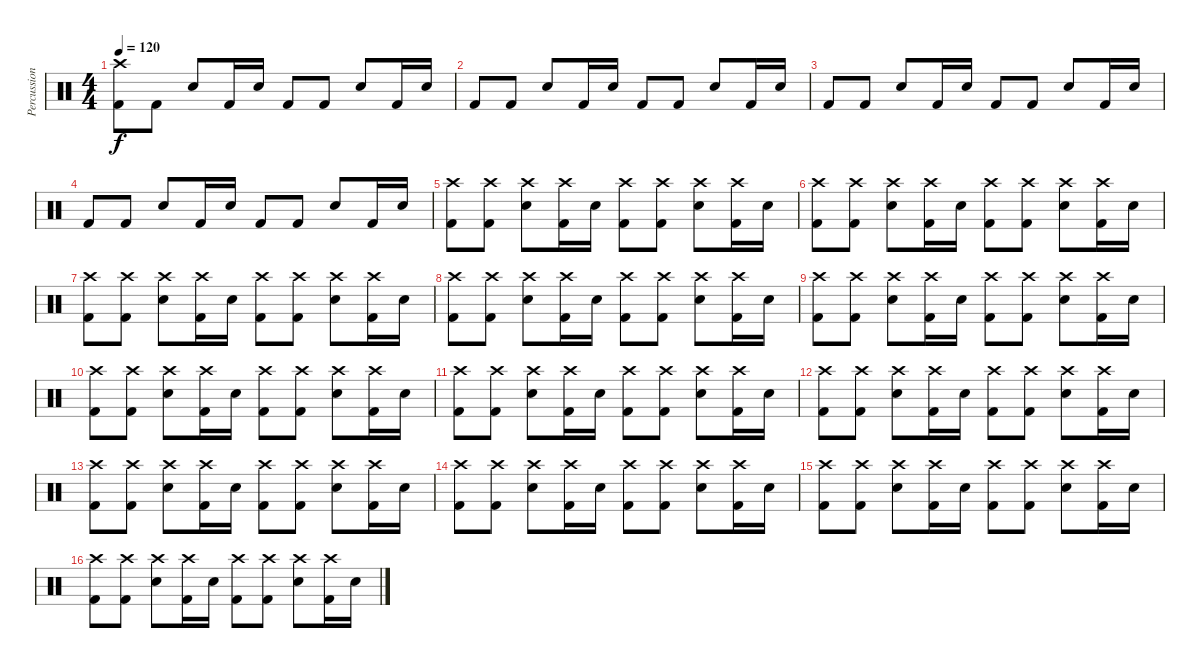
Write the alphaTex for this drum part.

\track ("Percussion" "Percussion") {instrument percussion}
\staff {score}
\articulation defaults
\ts (4 4)
\tempo 120
\clef neutral
\ks c
("Crash high (hit)" "Kick (hit) 2").8{dy f} "Kick (hit) 2".8 "Electric Snare (hit)".8 "Kick (hit) 2".16 "Electric Snare (hit)".16 "Kick (hit) 2".8 "Kick (hit) 2".8 "Electric Snare (hit)".8 "Kick (hit) 2".16 "Electric Snare (hit)".16 |
"Kick (hit) 2".8 "Kick (hit) 2".8 "Electric Snare (hit)".8 "Kick (hit) 2".16 "Electric Snare (hit)".16 "Kick (hit) 2".8 "Kick (hit) 2".8 "Electric Snare (hit)".8 "Kick (hit) 2".16 "Electric Snare (hit)".16 |
"Kick (hit) 2".8 "Kick (hit) 2".8 "Electric Snare (hit)".8 "Kick (hit) 2".16 "Electric Snare (hit)".16 "Kick (hit) 2".8 "Kick (hit) 2".8 "Electric Snare (hit)".8 "Kick (hit) 2".16 "Electric Snare (hit)".16 |
"Kick (hit) 2".8 "Kick (hit) 2".8 "Electric Snare (hit)".8 "Kick (hit) 2".16 "Electric Snare (hit)".16 "Kick (hit) 2".8 "Kick (hit) 2".8 "Electric Snare (hit)".8 "Kick (hit) 2".16 "Electric Snare (hit)".16 |
("Crash high (hit)" "Kick (hit) 2").8 ("Crash high (hit)" "Kick (hit) 2").8 ("Crash high (hit)" "Electric Snare (hit)").8 ("Crash high (hit)" "Kick (hit) 2").16 "Electric Snare (hit)".16 ("Crash high (hit)" "Kick (hit) 2").8 ("Crash high (hit)" "Kick (hit) 2").8 ("Crash high (hit)" "Electric Snare (hit)").8 ("Crash high (hit)" "Kick (hit) 2").16 "Electric Snare (hit)".16 |
("Crash high (hit)" "Kick (hit) 2").8 ("Crash high (hit)" "Kick (hit) 2").8 ("Crash high (hit)" "Electric Snare (hit)").8 ("Crash high (hit)" "Kick (hit) 2").16 "Electric Snare (hit)".16 ("Crash high (hit)" "Kick (hit) 2").8 ("Crash high (hit)" "Kick (hit) 2").8 ("Crash high (hit)" "Electric Snare (hit)").8 ("Crash high (hit)" "Kick (hit) 2").16 "Electric Snare (hit)".16 |
("Crash high (hit)" "Kick (hit) 2").8 ("Crash high (hit)" "Kick (hit) 2").8 ("Crash high (hit)" "Electric Snare (hit)").8 ("Crash high (hit)" "Kick (hit) 2").16 "Electric Snare (hit)".16 ("Crash high (hit)" "Kick (hit) 2").8 ("Crash high (hit)" "Kick (hit) 2").8 ("Crash high (hit)" "Electric Snare (hit)").8 ("Crash high (hit)" "Kick (hit) 2").16 "Electric Snare (hit)".16 |
("Crash high (hit)" "Kick (hit) 2").8 ("Crash high (hit)" "Kick (hit) 2").8 ("Crash high (hit)" "Electric Snare (hit)").8 ("Crash high (hit)" "Kick (hit) 2").16 "Electric Snare (hit)".16 ("Crash high (hit)" "Kick (hit) 2").8 ("Crash high (hit)" "Kick (hit) 2").8 ("Crash high (hit)" "Electric Snare (hit)").8 ("Crash high (hit)" "Kick (hit) 2").16 "Electric Snare (hit)".16 |
("Crash high (hit)" "Kick (hit) 2").8 ("Crash high (hit)" "Kick (hit) 2").8 ("Crash high (hit)" "Electric Snare (hit)").8 ("Crash high (hit)" "Kick (hit) 2").16 "Electric Snare (hit)".16 ("Crash high (hit)" "Kick (hit) 2").8 ("Crash high (hit)" "Kick (hit) 2").8 ("Crash high (hit)" "Electric Snare (hit)").8 ("Crash high (hit)" "Kick (hit) 2").16 "Electric Snare (hit)".16 |
("Crash high (hit)" "Kick (hit) 2").8 ("Crash high (hit)" "Kick (hit) 2").8 ("Crash high (hit)" "Electric Snare (hit)").8 ("Crash high (hit)" "Kick (hit) 2").16 "Electric Snare (hit)".16 ("Crash high (hit)" "Kick (hit) 2").8 ("Crash high (hit)" "Kick (hit) 2").8 ("Crash high (hit)" "Electric Snare (hit)").8 ("Crash high (hit)" "Kick (hit) 2").16 "Electric Snare (hit)".16 |
("Crash high (hit)" "Kick (hit) 2").8 ("Crash high (hit)" "Kick (hit) 2").8 ("Crash high (hit)" "Electric Snare (hit)").8 ("Crash high (hit)" "Kick (hit) 2").16 "Electric Snare (hit)".16 ("Crash high (hit)" "Kick (hit) 2").8 ("Crash high (hit)" "Kick (hit) 2").8 ("Crash high (hit)" "Electric Snare (hit)").8 ("Crash high (hit)" "Kick (hit) 2").16 "Electric Snare (hit)".16 |
("Crash high (hit)" "Kick (hit) 2").8 ("Crash high (hit)" "Kick (hit) 2").8 ("Crash high (hit)" "Electric Snare (hit)").8 ("Crash high (hit)" "Kick (hit) 2").16 "Electric Snare (hit)".16 ("Crash high (hit)" "Kick (hit) 2").8 ("Crash high (hit)" "Kick (hit) 2").8 ("Crash high (hit)" "Electric Snare (hit)").8 ("Crash high (hit)" "Kick (hit) 2").16 "Electric Snare (hit)".16 |
("Crash high (hit)" "Kick (hit) 2").8 ("Crash high (hit)" "Kick (hit) 2").8 ("Crash high (hit)" "Electric Snare (hit)").8 ("Crash high (hit)" "Kick (hit) 2").16 "Electric Snare (hit)".16 ("Crash high (hit)" "Kick (hit) 2").8 ("Crash high (hit)" "Kick (hit) 2").8 ("Crash high (hit)" "Electric Snare (hit)").8 ("Crash high (hit)" "Kick (hit) 2").16 "Electric Snare (hit)".16 |
("Crash high (hit)" "Kick (hit) 2").8 ("Crash high (hit)" "Kick (hit) 2").8 ("Crash high (hit)" "Electric Snare (hit)").8 ("Crash high (hit)" "Kick (hit) 2").16 "Electric Snare (hit)".16 ("Crash high (hit)" "Kick (hit) 2").8 ("Crash high (hit)" "Kick (hit) 2").8 ("Crash high (hit)" "Electric Snare (hit)").8 ("Crash high (hit)" "Kick (hit) 2").16 "Electric Snare (hit)".16 |
("Crash high (hit)" "Kick (hit) 2").8 ("Crash high (hit)" "Kick (hit) 2").8 ("Crash high (hit)" "Electric Snare (hit)").8 ("Crash high (hit)" "Kick (hit) 2").16 "Electric Snare (hit)".16 ("Crash high (hit)" "Kick (hit) 2").8 ("Crash high (hit)" "Kick (hit) 2").8 ("Crash high (hit)" "Electric Snare (hit)").8 ("Crash high (hit)" "Kick (hit) 2").16 "Electric Snare (hit)".16 |
("Crash high (hit)" "Kick (hit) 2").8 ("Crash high (hit)" "Kick (hit) 2").8 ("Crash high (hit)" "Electric Snare (hit)").8 ("Crash high (hit)" "Kick (hit) 2").16 "Electric Snare (hit)".16 ("Crash high (hit)" "Kick (hit) 2").8 ("Crash high (hit)" "Kick (hit) 2").8 ("Crash high (hit)" "Electric Snare (hit)").8 ("Crash high (hit)" "Kick (hit) 2").16 "Electric Snare (hit)".16
